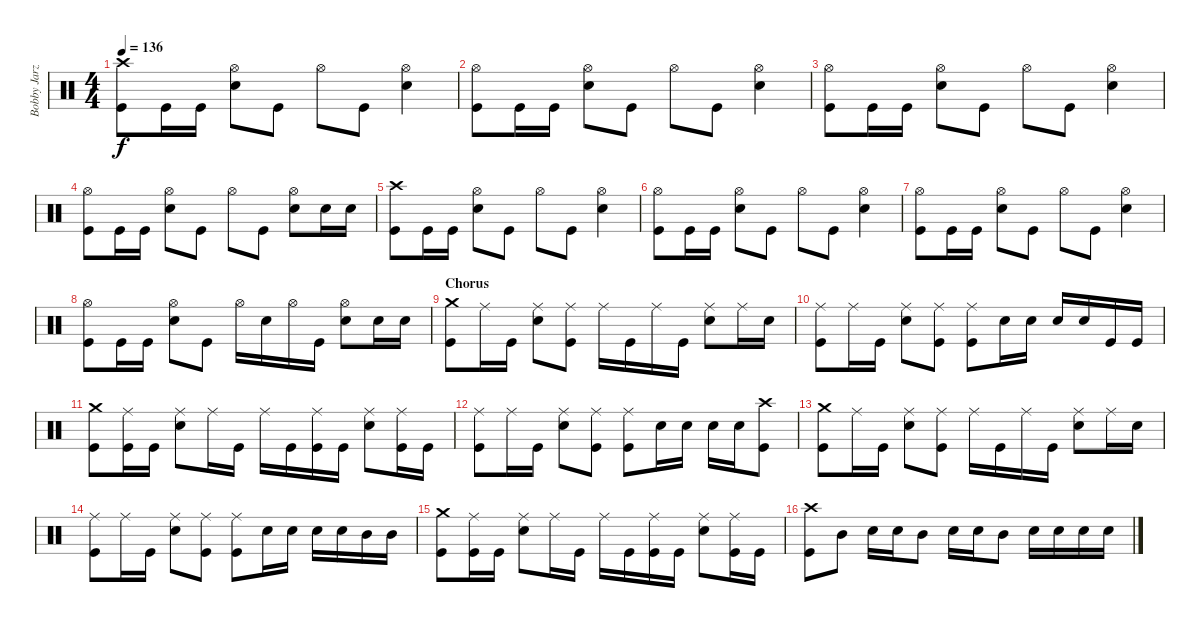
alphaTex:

\track ("Bobby Jarzombek" "Bobby Jarz") {instrument percussion}
\staff {score}
\articulation defaults
\ts (4 4)
\tempo 136
\clef neutral
\ks c
("Crash high (hit)" "Kick (hit)").8{dy f} "Kick (hit)".16 "Kick (hit)".16 ("Hi-Hat (open)" "Electric Snare (hit)").8 "Kick (hit)".8 "Hi-Hat (open)".8 "Kick (hit)".8 ("Hi-Hat (open)" "Electric Snare (hit)").4 |
("Hi-Hat (open)" "Kick (hit)").8 "Kick (hit)".16 "Kick (hit)".16 ("Hi-Hat (open)" "Electric Snare (hit)").8 "Kick (hit)".8 "Hi-Hat (open)".8 "Kick (hit)".8 ("Hi-Hat (open)" "Electric Snare (hit)").4 |
("Hi-Hat (open)" "Kick (hit)").8 "Kick (hit)".16 "Kick (hit)".16 ("Hi-Hat (open)" "Electric Snare (hit)").8 "Kick (hit)".8 "Hi-Hat (open)".8 "Kick (hit)".8 ("Hi-Hat (open)" "Electric Snare (hit)").4 |
("Hi-Hat (open)" "Kick (hit)").8 "Kick (hit)".16 "Kick (hit)".16 ("Hi-Hat (open)" "Electric Snare (hit)").8 "Kick (hit)".8 "Hi-Hat (open)".8 "Kick (hit)".8 ("Hi-Hat (open)" "Electric Snare (hit)").8 "Electric Snare (hit)".16 "Electric Snare (hit)".16 |
("Crash high (hit)" "Kick (hit)").8 "Kick (hit)".16 "Kick (hit)".16 ("Hi-Hat (open)" "Electric Snare (hit)").8 "Kick (hit)".8 "Hi-Hat (open)".8 "Kick (hit)".8 ("Hi-Hat (open)" "Electric Snare (hit)").4 |
("Hi-Hat (open)" "Kick (hit)").8 "Kick (hit)".16 "Kick (hit)".16 ("Hi-Hat (open)" "Electric Snare (hit)").8 "Kick (hit)".8 "Hi-Hat (open)".8 "Kick (hit)".8 ("Hi-Hat (open)" "Electric Snare (hit)").4 |
("Hi-Hat (open)" "Kick (hit)").8 "Kick (hit)".16 "Kick (hit)".16 ("Hi-Hat (open)" "Electric Snare (hit)").8 "Kick (hit)".8 "Hi-Hat (open)".8 "Kick (hit)".8 ("Hi-Hat (open)" "Electric Snare (hit)").4 |
("Hi-Hat (open)" "Kick (hit)").8 "Kick (hit)".16 "Kick (hit)".16 ("Hi-Hat (open)" "Electric Snare (hit)").8 "Kick (hit)".8 "Hi-Hat (open)".16 "Electric Snare (hit)".16 "Hi-Hat (open)".16 "Kick (hit)".16 ("Hi-Hat (open)" "Electric Snare (hit)").8 "Electric Snare (hit)".16 "Electric Snare (hit)".16 |
\section ("" "Chorus")
("Crash medium (hit)" "Kick (hit)").8 "Ride (middle)".16 "Kick (hit)".16 ("Ride (middle)" "Electric Snare (hit)").8 ("Ride (middle)" "Kick (hit)").8 "Ride (middle)".16 "Kick (hit)".16 "Ride (middle)".16 "Kick (hit)".16 ("Ride (middle)" "Electric Snare (hit)").8 "Ride (middle)".16 "Electric Snare (hit)".16 |
("Ride (middle)" "Kick (hit)").8 "Ride (middle)".16 "Kick (hit)".16 ("Ride (middle)" "Electric Snare (hit)").8 ("Ride (middle)" "Kick (hit)").8 ("Ride (middle)" "Kick (hit)").8 "Electric Snare (hit)".16 "Electric Snare (hit)".16 "Electric Snare (hit)".16 "Electric Snare (hit)".16 "Kick (hit)".16 "Kick (hit)".16 |
("Crash medium (hit)" "Kick (hit)").8 ("Ride (middle)" "Kick (hit)").16 "Kick (hit)".16 ("Ride (middle)" "Electric Snare (hit)").8 "Ride (middle)".16 "Kick (hit)".16 "Ride (middle)".16 "Kick (hit)".16 ("Ride (middle)" "Kick (hit)").16 "Kick (hit)".16 ("Ride (middle)" "Electric Snare (hit)").8 ("Ride (middle)" "Kick (hit)").16 "Kick (hit)".16 |
("Ride (middle)" "Kick (hit)").8 "Ride (middle)".16 "Kick (hit)".16 ("Ride (middle)" "Electric Snare (hit)").8 ("Ride (middle)" "Kick (hit)").8 ("Ride (middle)" "Kick (hit)").8 "Electric Snare (hit)".16 "Electric Snare (hit)".16 "Electric Snare (hit)".16 "Electric Snare (hit)".16 ("Crash high (hit)" "Kick (hit)").8 |
("Crash medium (hit)" "Kick (hit)").8 "Ride (middle)".16 "Kick (hit)".16 ("Ride (middle)" "Electric Snare (hit)").8 ("Ride (middle)" "Kick (hit)").8 "Ride (middle)".16 "Kick (hit)".16 "Ride (middle)".16 "Kick (hit)".16 ("Ride (middle)" "Electric Snare (hit)").8 "Ride (middle)".16 "Electric Snare (hit)".16 |
("Ride (middle)" "Kick (hit)").8 "Ride (middle)".16 "Kick (hit)".16 ("Ride (middle)" "Electric Snare (hit)").8 ("Ride (middle)" "Kick (hit)").8 ("Ride (middle)" "Kick (hit)").8 "Electric Snare (hit)".16 "Electric Snare (hit)".16 "Electric Snare (hit)".16 "Electric Snare (hit)".16 "Mid Tom (hit)".16 "Mid Tom (hit)".16 |
("Crash medium (hit)" "Kick (hit)").8 ("Ride (middle)" "Kick (hit)").16 "Kick (hit)".16 ("Ride (middle)" "Electric Snare (hit)").8 "Ride (middle)".16 "Kick (hit)".16 "Ride (middle)".16 "Kick (hit)".16 ("Ride (middle)" "Kick (hit)").16 "Kick (hit)".16 ("Ride (middle)" "Electric Snare (hit)").8 ("Ride (middle)" "Kick (hit)").16 "Kick (hit)".16 |
("Crash high (hit)" "Kick (hit)").8 "Mid Tom (hit)".8 "Electric Snare (hit)".16 "Electric Snare (hit)".16 "Mid Tom (hit)".8 "Electric Snare (hit)".16 "Electric Snare (hit)".16 "Mid Tom (hit)".8 "Electric Snare (hit)".16 "Electric Snare (hit)".16 "Electric Snare (hit)".16 "Electric Snare (hit)".16
